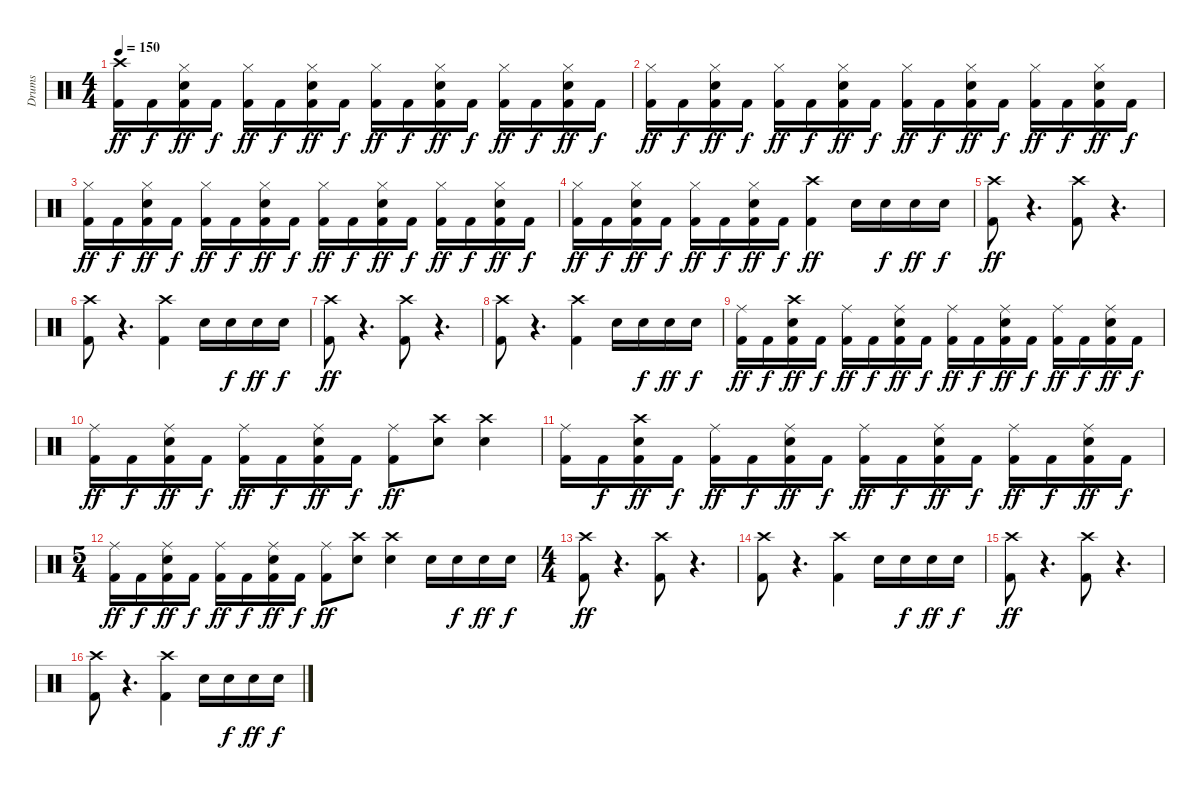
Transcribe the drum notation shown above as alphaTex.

\track ("Drums" "Drums") {instrument percussion}
\staff {score}
\articulation defaults
\ts (4 4)
\tempo 150
\clef neutral
\ks c
("Crash high (hit)" "Kick (hit) 2").16{dy ff} "Kick (hit) 2".16{dy f} ("Hi-Hat (closed)" "Snare (hit) 2" "Kick (hit) 2").16{dy ff} "Kick (hit) 2".16{dy f} ("Hi-Hat (closed)" "Kick (hit) 2").16{dy ff} "Kick (hit) 2".16{dy f} ("Hi-Hat (closed)" "Snare (hit) 2" "Kick (hit) 2").16{dy ff} "Kick (hit) 2".16{dy f} ("Hi-Hat (closed)" "Kick (hit) 2").16{dy ff} "Kick (hit) 2".16{dy f} ("Hi-Hat (closed)" "Snare (hit) 2" "Kick (hit) 2").16{dy ff} "Kick (hit) 2".16{dy f} ("Hi-Hat (closed)" "Kick (hit) 2").16{dy ff} "Kick (hit) 2".16{dy f} ("Hi-Hat (closed)" "Snare (hit) 2" "Kick (hit) 2").16{dy ff} "Kick (hit) 2".16{dy f} |
("Hi-Hat (closed)" "Kick (hit) 2").16{dy ff} "Kick (hit) 2".16{dy f} ("Hi-Hat (closed)" "Snare (hit) 2" "Kick (hit) 2").16{dy ff} "Kick (hit) 2".16{dy f} ("Hi-Hat (closed)" "Kick (hit) 2").16{dy ff} "Kick (hit) 2".16{dy f} ("Hi-Hat (closed)" "Snare (hit) 2" "Kick (hit) 2").16{dy ff} "Kick (hit) 2".16{dy f} ("Hi-Hat (closed)" "Kick (hit) 2").16{dy ff} "Kick (hit) 2".16{dy f} ("Hi-Hat (closed)" "Snare (hit) 2" "Kick (hit) 2").16{dy ff} "Kick (hit) 2".16{dy f} ("Hi-Hat (closed)" "Kick (hit) 2").16{dy ff} "Kick (hit) 2".16{dy f} ("Hi-Hat (closed)" "Snare (hit) 2" "Kick (hit) 2").16{dy ff} "Kick (hit) 2".16{dy f} |
("Hi-Hat (closed)" "Kick (hit) 2").16{dy ff} "Kick (hit) 2".16{dy f} ("Hi-Hat (closed)" "Snare (hit) 2" "Kick (hit) 2").16{dy ff} "Kick (hit) 2".16{dy f} ("Hi-Hat (closed)" "Kick (hit) 2").16{dy ff} "Kick (hit) 2".16{dy f} ("Hi-Hat (closed)" "Snare (hit) 2" "Kick (hit) 2").16{dy ff} "Kick (hit) 2".16{dy f} ("Hi-Hat (closed)" "Kick (hit) 2").16{dy ff} "Kick (hit) 2".16{dy f} ("Hi-Hat (closed)" "Snare (hit) 2" "Kick (hit) 2").16{dy ff} "Kick (hit) 2".16{dy f} ("Hi-Hat (closed)" "Kick (hit) 2").16{dy ff} "Kick (hit) 2".16{dy f} ("Hi-Hat (closed)" "Snare (hit) 2" "Kick (hit) 2").16{dy ff} "Kick (hit) 2".16{dy f} |
("Hi-Hat (closed)" "Kick (hit) 2").16{dy ff} "Kick (hit) 2".16{dy f} ("Hi-Hat (closed)" "Snare (hit) 2" "Kick (hit) 2").16{dy ff} "Kick (hit) 2".16{dy f} ("Hi-Hat (closed)" "Kick (hit) 2").16{dy ff} "Kick (hit) 2".16{dy f} ("Hi-Hat (closed)" "Snare (hit) 2" "Kick (hit) 2").16{dy ff} "Kick (hit) 2".16{dy f} ("Kick (hit) 2" "Crash high (hit)").4{dy ff} "Snare (hit) 2".16 "Snare (hit) 2".16{dy f} "Snare (hit) 2".16{dy ff} "Snare (hit) 2".16{dy f} |
("Crash high (hit)" "Kick (hit) 2").8{dy ff} r.4{d} ("Crash high (hit)" "Kick (hit) 2").8 r.4{d} |
("Crash high (hit)" "Kick (hit) 2").8 r.4{d} ("Crash high (hit)" "Kick (hit) 2").4 "Snare (hit) 2".16 "Snare (hit) 2".16{dy f} "Snare (hit) 2".16{dy ff} "Snare (hit) 2".16{dy f} |
("Crash high (hit)" "Kick (hit) 2").8{dy ff} r.4{d} ("Crash high (hit)" "Kick (hit) 2").8 r.4{d} |
("Crash high (hit)" "Kick (hit) 2").8 r.4{d} ("Crash high (hit)" "Kick (hit) 2").4 "Snare (hit) 2".16 "Snare (hit) 2".16{dy f} "Snare (hit) 2".16{dy ff} "Snare (hit) 2".16{dy f} |
("Ride (middle)" "Kick (hit) 2").16{dy ff} "Kick (hit) 2".16{dy f} ("Kick (hit) 2" "Crash high (hit)" "Snare (hit) 2").16{dy ff} "Kick (hit) 2".16{dy f} ("Ride (middle)" "Kick (hit) 2").16{dy ff} "Kick (hit) 2".16{dy f} ("Ride (middle)" "Snare (hit) 2" "Kick (hit) 2").16{dy ff} "Kick (hit) 2".16{dy f} ("Ride (middle)" "Kick (hit) 2").16{dy ff} "Kick (hit) 2".16{dy f} ("Ride (middle)" "Snare (hit) 2" "Kick (hit) 2").16{dy ff} "Kick (hit) 2".16{dy f} ("Ride (middle)" "Kick (hit) 2").16{dy ff} "Kick (hit) 2".16{dy f} ("Ride (middle)" "Snare (hit) 2" "Kick (hit) 2").16{dy ff} "Kick (hit) 2".16{dy f} |
("Ride (middle)" "Kick (hit) 2").16{dy ff} "Kick (hit) 2".16{dy f} ("Ride (middle)" "Snare (hit) 2" "Kick (hit) 2").16{dy ff} "Kick (hit) 2".16{dy f} ("Ride (middle)" "Kick (hit) 2").16{dy ff} "Kick (hit) 2".16{dy f} ("Ride (middle)" "Snare (hit) 2" "Kick (hit) 2").16{dy ff} "Kick (hit) 2".16{dy f} ("Kick (hit) 2" "Ride (middle)").8{dy ff} ("Crash high (hit)" "Snare (hit) 2").8 ("Crash high (hit)" "Snare (hit) 2").4 |
("Ride (middle)" "Kick (hit) 2").16 "Kick (hit) 2".16{dy f} ("Kick (hit) 2" "Crash high (hit)" "Snare (hit) 2").16{dy ff} "Kick (hit) 2".16{dy f} ("Ride (middle)" "Kick (hit) 2").16{dy ff} "Kick (hit) 2".16{dy f} ("Ride (middle)" "Snare (hit) 2" "Kick (hit) 2").16{dy ff} "Kick (hit) 2".16{dy f} ("Ride (middle)" "Kick (hit) 2").16{dy ff} "Kick (hit) 2".16{dy f} ("Ride (middle)" "Snare (hit) 2" "Kick (hit) 2").16{dy ff} "Kick (hit) 2".16{dy f} ("Ride (middle)" "Kick (hit) 2").16{dy ff} "Kick (hit) 2".16{dy f} ("Ride (middle)" "Snare (hit) 2" "Kick (hit) 2").16{dy ff} "Kick (hit) 2".16{dy f} |
\ts (5 4)
("Ride (middle)" "Kick (hit) 2").16{dy ff} "Kick (hit) 2".16{dy f} ("Ride (middle)" "Snare (hit) 2" "Kick (hit) 2").16{dy ff} "Kick (hit) 2".16{dy f} ("Ride (middle)" "Kick (hit) 2").16{dy ff} "Kick (hit) 2".16{dy f} ("Ride (middle)" "Snare (hit) 2" "Kick (hit) 2").16{dy ff} "Kick (hit) 2".16{dy f} ("Kick (hit) 2" "Ride (middle)").8{dy ff} ("Crash high (hit)" "Snare (hit) 2").8 ("Crash high (hit)" "Snare (hit) 2").4 "Snare (hit) 2".16 "Snare (hit) 2".16{dy f} "Snare (hit) 2".16{dy ff} "Snare (hit) 2".16{dy f} |
\ts (4 4)
("Crash high (hit)" "Kick (hit) 2").8{dy ff} r.4{d} ("Crash high (hit)" "Kick (hit) 2").8 r.4{d} |
("Crash high (hit)" "Kick (hit) 2").8 r.4{d} ("Crash high (hit)" "Kick (hit) 2").4 "Snare (hit) 2".16 "Snare (hit) 2".16{dy f} "Snare (hit) 2".16{dy ff} "Snare (hit) 2".16{dy f} |
("Crash high (hit)" "Kick (hit) 2").8{dy ff} r.4{d} ("Crash high (hit)" "Kick (hit) 2").8 r.4{d} |
("Crash high (hit)" "Kick (hit) 2").8 r.4{d} ("Crash high (hit)" "Kick (hit) 2").4 "Snare (hit) 2".16 "Snare (hit) 2".16{dy f} "Snare (hit) 2".16{dy ff} "Snare (hit) 2".16{dy f}
